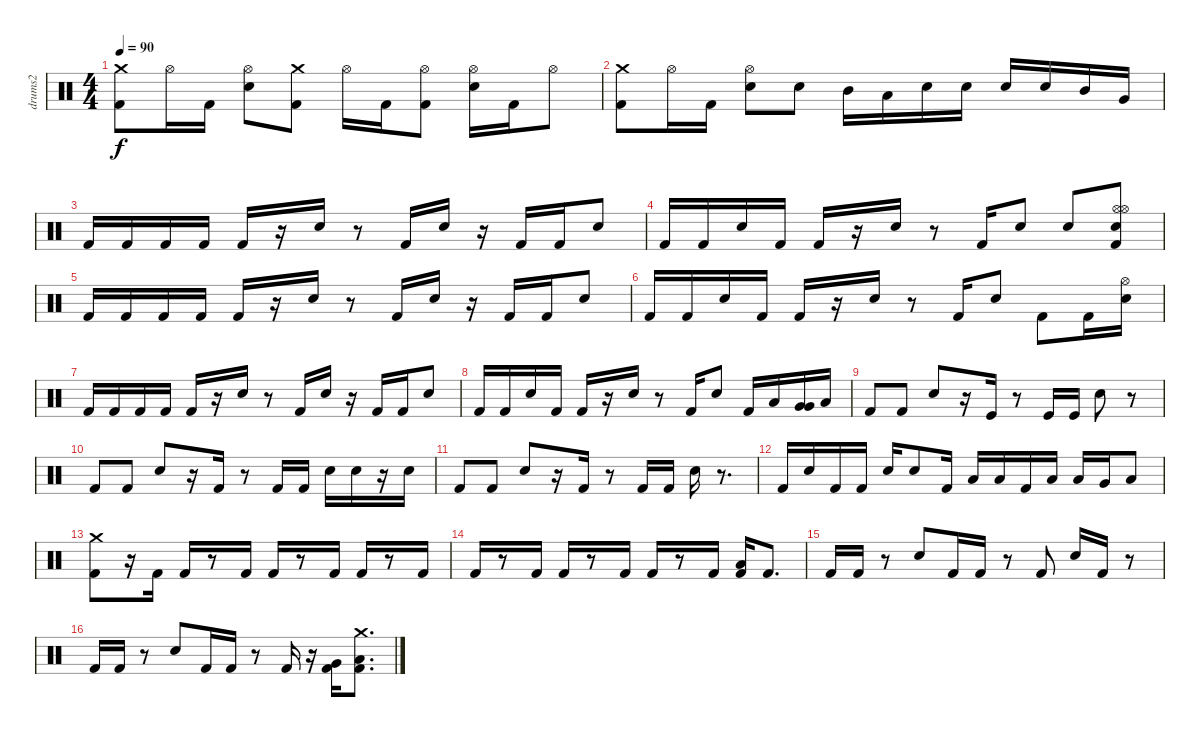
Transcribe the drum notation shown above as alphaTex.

\track ("drums2" "drums2") {instrument percussion}
\staff {score}
\articulation defaults
\ts (4 4)
\tempo 90
\clef neutral
\ks c
("Crash medium (hit)" "Kick (hit) 2").8{dy f} "Hi-Hat (open)".16 "Kick (hit) 2".16 ("Hi-Hat (open)" "Electric Snare (hit)").8 ("Crash medium (hit)" "Kick (hit) 2").8 "Hi-Hat (open)".16 "Kick (hit) 2".16 ("Hi-Hat (open)" "Kick (hit) 2").8 ("Hi-Hat (open)" "Electric Snare (hit)").16 "Kick (hit) 2".16 "Hi-Hat (open)".8 |
("Crash medium (hit)" "Kick (hit) 2").8 "Hi-Hat (open)".16 "Kick (hit) 2".16 ("Hi-Hat (open)" "Electric Snare (hit)").8 "Electric Snare (hit)".8 "Mid Tom (hit)".16 "Low Tom (hit)".16 "Electric Snare (hit)".16 "Electric Snare (hit)".16 "Electric Snare (hit)".16 "Electric Snare (hit)".16 "Mid Tom (hit)".16 "Very Low Tom (hit)".16 |
"Kick (hit) 2".16 "Kick (hit) 2".16 "Kick (hit) 2".16 "Kick (hit) 2".16 "Kick (hit) 2".16 r.16 "Snare (hit) 2".16 r.8 "Kick (hit) 2".16 "Snare (hit) 2".16 r.16 "Kick (hit) 2".16 "Kick (hit) 2".16 "Snare (hit) 2".8 |
"Kick (hit) 2".16 "Kick (hit) 2".16 "Snare (hit) 2".16 "Kick (hit) 2".16 "Kick (hit) 2".16 r.16 "Snare (hit) 2".16 r.8 "Kick (hit) 2".16 "Snare (hit) 2".8 "Snare (hit) 2".8 ("Hi-Hat (open)" "Hi-Hat (open)" "Kick (hit) 2" "Snare (hit) 2").8 |
"Kick (hit) 2".16 "Kick (hit) 2".16 "Kick (hit) 2".16 "Kick (hit) 2".16 "Kick (hit) 2".16 r.16 "Snare (hit) 2".16 r.8 "Kick (hit) 2".16 "Snare (hit) 2".16 r.16 "Kick (hit) 2".16 "Kick (hit) 2".16 "Snare (hit) 2".8 |
"Kick (hit) 2".16 "Kick (hit) 2".16 "Snare (hit) 2".16 "Kick (hit) 2".16 "Kick (hit) 2".16 r.16 "Snare (hit) 2".16 r.8 "Kick (hit) 2".16 "Snare (hit) 2".8 "Kick (hit) 2".8 "Kick (hit) 2".16 ("Snare (hit) 2" "Hi-Hat (open)").16 |
"Kick (hit) 2".16 "Kick (hit) 2".16 "Kick (hit) 2".16 "Kick (hit) 2".16 "Kick (hit) 2".16 r.16 "Snare (hit) 2".16 r.8 "Kick (hit) 2".16 "Snare (hit) 2".16 r.16 "Kick (hit) 2".16 "Kick (hit) 2".16 "Snare (hit) 2".8 |
"Kick (hit) 2".16 "Kick (hit) 2".16 "Snare (hit) 2".16 "Kick (hit) 2".16 "Kick (hit) 2".16 r.16 "Snare (hit) 2".16 r.8 "Kick (hit) 2".16 "Snare (hit) 2".8 "Kick (hit) 2".16 "Low Tom (hit)".16 ("Very Low Tom (hit)" "Very Low Tom (hit)").16 "Low Floor Tom (hit)".16 |
"Kick (hit) 2".8 "Kick (hit) 2".8 "Snare (hit) 2".8 r.16 "Kick (hit)".16 r.8 "Kick (hit)".16 "Kick (hit)".16 "Snare (hit) 2".8 r.8 |
"Kick (hit) 2".8 "Kick (hit) 2".8 "Snare (hit) 2".8 r.16 "Kick (hit) 2".16 r.8 "Kick (hit) 2".16 "Kick (hit) 2".16 "Snare (hit) 2".16 "Snare (hit) 2".16 r.16 "Snare (hit) 2".16 |
"Kick (hit) 2".8 "Kick (hit) 2".8 "Snare (hit) 2".8 r.16 "Kick (hit) 2".16 r.8 "Kick (hit) 2".16 "Kick (hit) 2".16 "Snare (hit) 2".16 r.8{d} |
"Kick (hit) 2".16 "Snare (hit) 2".16 "Kick (hit) 2".16 "Kick (hit) 2".16 "Snare (hit) 2".16 "Snare (hit) 2".8 "Kick (hit) 2".16 "Low Floor Tom (hit)".16 "Low Floor Tom (hit)".16 "Kick (hit) 2".16 "Low Tom (hit)".16 "Low Tom (hit)".16 "Very Low Tom (hit)".16 "Low Floor Tom (hit)".8 |
("Crash medium (hit)" "Kick (hit) 2").8 r.16 "Kick (hit) 2".16 "Kick (hit) 2".16 r.8 "Kick (hit) 2".16 "Kick (hit) 2".16 r.8 "Kick (hit) 2".16 "Kick (hit) 2".16 r.8 "Kick (hit) 2".16 |
"Kick (hit) 2".16 r.8 "Kick (hit) 2".16 "Kick (hit) 2".16 r.8 "Kick (hit) 2".16 "Kick (hit) 2".16 r.8 "Kick (hit) 2".16 ("Low Floor Tom (hit)" "Kick (hit) 2").16 "Kick (hit) 2".8{d} |
"Kick (hit) 2".16 "Kick (hit) 2".16 r.8 "Snare (hit) 2".8 "Kick (hit) 2".16 "Kick (hit) 2".16 r.8 "Kick (hit) 2".8 "Snare (hit) 2".16 "Kick (hit) 2".16 r.8 |
"Kick (hit) 2".16 "Kick (hit) 2".16 r.8 "Snare (hit) 2".8 "Kick (hit) 2".16 "Kick (hit) 2".16 r.8 "Kick (hit) 2".16 r.16 ("Very Low Tom (hit)" "Kick (hit) 2").16 ("Crash medium (hit)" "Kick (hit) 2" "Low Floor Tom (hit)").8{d}
